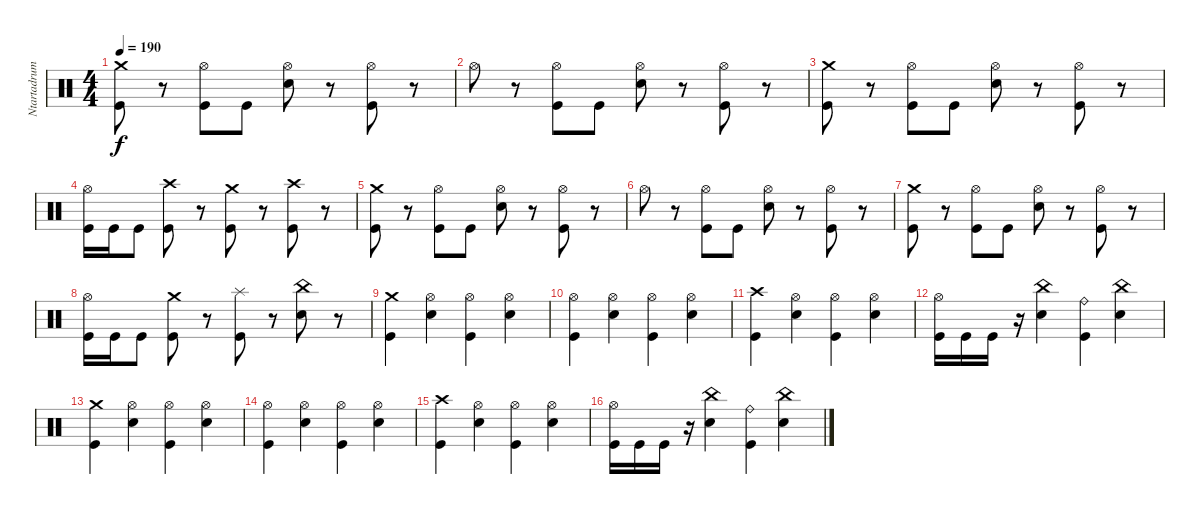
\track ("Ntartadrum" "Ntartadrum") {instrument percussion}
\staff {score}
\articulation defaults
\ts (4 4)
\tempo 190
\clef neutral
\ks c
("Kick (hit)" "Crash medium (hit)").8{dy f} r.8 ("Kick (hit)" "Hi-Hat (open)").8 "Kick (hit)".8 ("Electric Snare (hit)" "Hi-Hat (open)").8 r.8 ("Kick (hit)" "Hi-Hat (open)").8 r.8 |
"Hi-Hat (open)".8 r.8 ("Kick (hit)" "Hi-Hat (open)").8 "Kick (hit)".8 ("Electric Snare (hit)" "Hi-Hat (open)").8 r.8 ("Kick (hit)" "Hi-Hat (open)").8 r.8 |
("Kick (hit)" "Crash medium (hit)").8 r.8 ("Kick (hit)" "Hi-Hat (open)").8 "Kick (hit)".8 ("Electric Snare (hit)" "Hi-Hat (open)").8 r.8 ("Kick (hit)" "Hi-Hat (open)").8 r.8 |
("Kick (hit)" "Hi-Hat (open)").16 "Kick (hit)".16 "Kick (hit)".8 ("Kick (hit)" "Crash high (hit)").8 r.8 ("Kick (hit)" "Crash medium (hit)").8 r.8 ("Kick (hit)" "Crash high (hit)").8 r.8 |
("Kick (hit)" "Crash medium (hit)").8 r.8 ("Kick (hit)" "Hi-Hat (open)").8 "Kick (hit)".8 ("Electric Snare (hit)" "Hi-Hat (open)").8 r.8 ("Kick (hit)" "Hi-Hat (open)").8 r.8 |
"Hi-Hat (open)".8 r.8 ("Kick (hit)" "Hi-Hat (open)").8 "Kick (hit)".8 ("Electric Snare (hit)" "Hi-Hat (open)").8 r.8 ("Kick (hit)" "Hi-Hat (open)").8 r.8 |
("Kick (hit)" "Crash medium (hit)").8 r.8 ("Kick (hit)" "Hi-Hat (open)").8 "Kick (hit)".8 ("Electric Snare (hit)" "Hi-Hat (open)").8 r.8 ("Kick (hit)" "Hi-Hat (open)").8 r.8 |
("Kick (hit)" "Hi-Hat (open)").16 "Kick (hit)".16 "Kick (hit)".8 ("Kick (hit)" "Crash medium (hit)").8 r.8 ("Kick (hit)" "Splash (hit)").8 r.8 ("Electric Snare (hit)" "China (hit)").8 r.8 |
("Kick (hit)" "Crash medium (hit)").4 ("Electric Snare (hit)" "Hi-Hat (open)").4 ("Kick (hit)" "Hi-Hat (open)").4 ("Electric Snare (hit)" "Hi-Hat (open)").4 |
("Kick (hit)" "Hi-Hat (open)").4 ("Electric Snare (hit)" "Hi-Hat (open)").4 ("Kick (hit)" "Hi-Hat (open)").4 ("Electric Snare (hit)" "Hi-Hat (open)").4 |
("Kick (hit)" "Crash high (hit)").4 ("Electric Snare (hit)" "Hi-Hat (open)").4 ("Kick (hit)" "Hi-Hat (open)").4 ("Electric Snare (hit)" "Hi-Hat (open)").4 |
("Kick (hit)" "Hi-Hat (open)").16 "Kick (hit)".16 "Kick (hit)".16 r.16 ("Electric Snare (hit)" "China (hit)").4 ("Kick (hit)" "Ride (bell)").4 ("Electric Snare (hit)" "China (hit)").4 |
("Kick (hit)" "Crash medium (hit)").4 ("Electric Snare (hit)" "Hi-Hat (open)").4 ("Kick (hit)" "Hi-Hat (open)").4 ("Electric Snare (hit)" "Hi-Hat (open)").4 |
("Kick (hit)" "Hi-Hat (open)").4 ("Electric Snare (hit)" "Hi-Hat (open)").4 ("Kick (hit)" "Hi-Hat (open)").4 ("Electric Snare (hit)" "Hi-Hat (open)").4 |
("Kick (hit)" "Crash high (hit)").4 ("Electric Snare (hit)" "Hi-Hat (open)").4 ("Kick (hit)" "Hi-Hat (open)").4 ("Electric Snare (hit)" "Hi-Hat (open)").4 |
("Kick (hit)" "Hi-Hat (open)").16 "Kick (hit)".16 "Kick (hit)".16 r.16 ("Electric Snare (hit)" "China (hit)").4 ("Kick (hit)" "Ride (bell)").4 ("Electric Snare (hit)" "China (hit)").4
